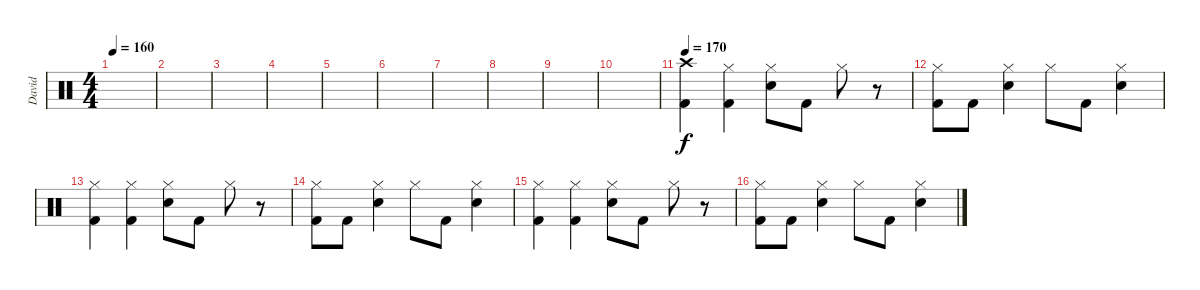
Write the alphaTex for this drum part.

\track ("David" "David") {instrument percussion}
\staff {score}
\articulation defaults
\ts (4 4)
\tempo 160
\clef neutral
\ks c
|
|
|
|
|
|
|
|
|
|
\tempo 170
("Crash high (hit)" "Kick (hit) 2").4 ("Hi-Hat (closed)" "Kick (hit) 2").4 ("Hi-Hat (closed)" "Snare (hit) 2").8 "Kick (hit) 2".8 "Hi-Hat (closed)".8 r.8 |
("Hi-Hat (closed)" "Kick (hit) 2").8 "Kick (hit) 2".8 ("Hi-Hat (closed)" "Snare (hit) 2").4 "Hi-Hat (closed)".8 "Kick (hit) 2".8 ("Hi-Hat (closed)" "Snare (hit) 2").4 |
("Hi-Hat (closed)" "Kick (hit) 2").4 ("Hi-Hat (closed)" "Kick (hit) 2").4 ("Hi-Hat (closed)" "Snare (hit) 2").8 "Kick (hit) 2".8 "Hi-Hat (closed)".8 r.8 |
("Hi-Hat (closed)" "Kick (hit) 2").8 "Kick (hit) 2".8 ("Hi-Hat (closed)" "Snare (hit) 2").4 "Hi-Hat (closed)".8 "Kick (hit) 2".8 ("Hi-Hat (closed)" "Snare (hit) 2").4 |
("Hi-Hat (closed)" "Kick (hit) 2").4 ("Hi-Hat (closed)" "Kick (hit) 2").4 ("Hi-Hat (closed)" "Snare (hit) 2").8 "Kick (hit) 2".8 "Hi-Hat (closed)".8 r.8 |
("Hi-Hat (closed)" "Kick (hit) 2").8 "Kick (hit) 2".8 ("Hi-Hat (closed)" "Snare (hit) 2").4 "Hi-Hat (closed)".8 "Kick (hit) 2".8 ("Hi-Hat (closed)" "Snare (hit) 2").4
